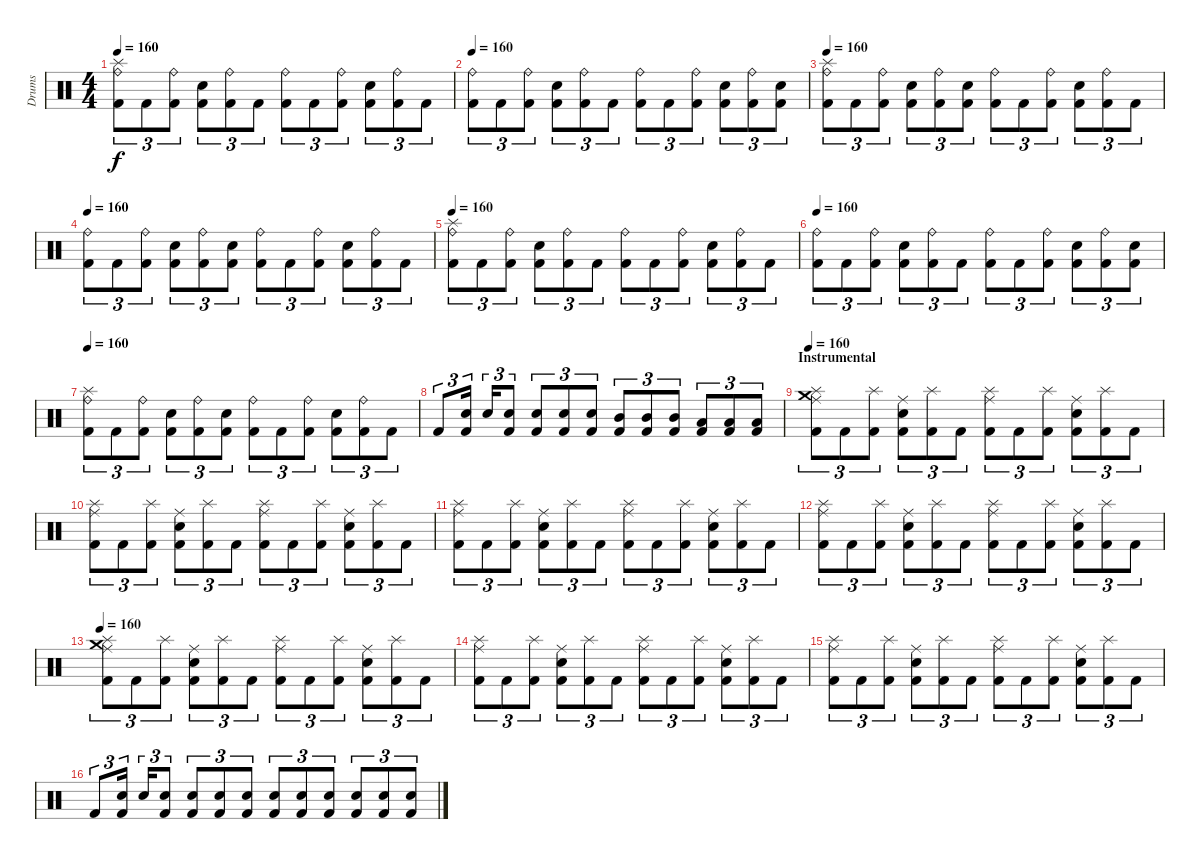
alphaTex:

\track ("Drums" "Drums") {instrument percussion}
\staff {score}
\articulation defaults
\ts (4 4)
\tempo 160
\clef neutral
\ks c
("Ride (bell)" "Splash (hit)" "Kick (hit) 2").8{tu (3 2) dy f} "Kick (hit) 2".8{tu (3 2)} ("Ride (bell)" "Kick (hit) 2").8{tu (3 2)} ("Snare (hit) 2" "Kick (hit) 2").8{tu (3 2)} ("Ride (bell)" "Kick (hit) 2").8{tu (3 2)} "Kick (hit) 2".8{tu (3 2)} ("Ride (bell)" "Kick (hit) 2").8{tu (3 2)} "Kick (hit) 2".8{tu (3 2)} ("Ride (bell)" "Kick (hit) 2").8{tu (3 2)} ("Snare (hit) 2" "Kick (hit) 2").8{tu (3 2)} ("Ride (bell)" "Kick (hit) 2").8{tu (3 2)} "Kick (hit) 2".8{tu (3 2)} |
\tempo 160
("Ride (bell)" "Kick (hit) 2").8{tu (3 2)} "Kick (hit) 2".8{tu (3 2)} ("Ride (bell)" "Kick (hit) 2").8{tu (3 2)} ("Snare (hit) 2" "Kick (hit) 2").8{tu (3 2)} ("Ride (bell)" "Kick (hit) 2").8{tu (3 2)} "Kick (hit) 2".8{tu (3 2)} ("Ride (bell)" "Kick (hit) 2").8{tu (3 2)} "Kick (hit) 2".8{tu (3 2)} ("Ride (bell)" "Kick (hit) 2").8{tu (3 2)} ("Snare (hit) 2" "Kick (hit) 2").8{tu (3 2)} ("Ride (bell)" "Kick (hit) 2").8{tu (3 2)} ("Snare (hit) 2" "Kick (hit) 2").8{tu (3 2)} |
\tempo 160
("Ride (bell)" "Splash (hit)" "Kick (hit) 2").8{tu (3 2)} "Kick (hit) 2".8{tu (3 2)} ("Ride (bell)" "Kick (hit) 2").8{tu (3 2)} ("Snare (hit) 2" "Kick (hit) 2").8{tu (3 2)} ("Ride (bell)" "Kick (hit) 2").8{tu (3 2)} ("Snare (hit)" "Kick (hit) 2").8{tu (3 2)} ("Ride (bell)" "Kick (hit) 2").8{tu (3 2)} "Kick (hit) 2".8{tu (3 2)} ("Ride (bell)" "Kick (hit) 2").8{tu (3 2)} ("Snare (hit) 2" "Kick (hit) 2").8{tu (3 2)} ("Ride (bell)" "Kick (hit) 2").8{tu (3 2)} "Kick (hit) 2".8{tu (3 2)} |
\tempo 160
("Ride (bell)" "Kick (hit) 2").8{tu (3 2)} "Kick (hit) 2".8{tu (3 2)} ("Ride (bell)" "Kick (hit) 2").8{tu (3 2)} ("Snare (hit) 2" "Kick (hit) 2").8{tu (3 2)} ("Ride (bell)" "Kick (hit) 2").8{tu (3 2)} ("Snare (hit) 2" "Kick (hit) 2").8{tu (3 2)} ("Ride (bell)" "Kick (hit) 2").8{tu (3 2)} "Kick (hit) 2".8{tu (3 2)} ("Ride (bell)" "Kick (hit) 2").8{tu (3 2)} ("Snare (hit) 2" "Kick (hit) 2").8{tu (3 2)} ("Ride (bell)" "Kick (hit) 2").8{tu (3 2)} "Kick (hit) 2".8{tu (3 2)} |
\tempo 160
("Ride (bell)" "Splash (hit)" "Kick (hit) 2").8{tu (3 2)} "Kick (hit) 2".8{tu (3 2)} ("Ride (bell)" "Kick (hit) 2").8{tu (3 2)} ("Snare (hit) 2" "Kick (hit) 2").8{tu (3 2)} ("Ride (bell)" "Kick (hit) 2").8{tu (3 2)} "Kick (hit) 2".8{tu (3 2)} ("Ride (bell)" "Kick (hit) 2").8{tu (3 2)} "Kick (hit) 2".8{tu (3 2)} ("Ride (bell)" "Kick (hit) 2").8{tu (3 2)} ("Snare (hit) 2" "Kick (hit) 2").8{tu (3 2)} ("Ride (bell)" "Kick (hit) 2").8{tu (3 2)} "Kick (hit) 2".8{tu (3 2)} |
\tempo 160
("Ride (bell)" "Kick (hit) 2").8{tu (3 2)} "Kick (hit) 2".8{tu (3 2)} ("Ride (bell)" "Kick (hit) 2").8{tu (3 2)} ("Snare (hit) 2" "Kick (hit) 2").8{tu (3 2)} ("Ride (bell)" "Kick (hit) 2").8{tu (3 2)} "Kick (hit) 2".8{tu (3 2)} ("Ride (bell)" "Kick (hit) 2").8{tu (3 2)} "Kick (hit) 2".8{tu (3 2)} ("Ride (bell)" "Kick (hit) 2").8{tu (3 2)} ("Snare (hit) 2" "Kick (hit) 2").8{tu (3 2)} ("Ride (bell)" "Kick (hit) 2").8{tu (3 2)} ("Snare (hit) 2" "Kick (hit) 2").8{tu (3 2)} |
\tempo 160
("Ride (bell)" "Splash (hit)" "Kick (hit) 2").8{tu (3 2)} "Kick (hit) 2".8{tu (3 2)} ("Ride (bell)" "Kick (hit) 2").8{tu (3 2)} ("Snare (hit) 2" "Kick (hit) 2").8{tu (3 2)} ("Ride (bell)" "Kick (hit) 2").8{tu (3 2)} ("Snare (hit) 2" "Kick (hit) 2").8{tu (3 2)} ("Ride (bell)" "Kick (hit) 2").8{tu (3 2)} "Kick (hit) 2".8{tu (3 2)} ("Ride (bell)" "Kick (hit) 2").8{tu (3 2)} ("Snare (hit) 2" "Kick (hit) 2").8{tu (3 2)} ("Ride (bell)" "Kick (hit) 2").8{tu (3 2)} "Kick (hit) 2".8{tu (3 2)} |
"Kick (hit) 2".8{tu (3 2)} ("Snare (hit) 2" "Kick (hit) 2").16{tu (3 2)} "Snare (hit) 2".16{tu (3 2)} ("Snare (hit) 2" "Kick (hit) 2").8{tu (3 2)} ("Snare (hit) 2" "Kick (hit) 2").8{tu (3 2)} ("Snare (hit) 2" "Kick (hit) 2").8{tu (3 2)} ("Snare (hit) 2" "Kick (hit) 2").8{tu (3 2)} ("Mid Tom (hit)" "Kick (hit) 2").8{tu (3 2)} ("Mid Tom (hit)" "Kick (hit) 2").8{tu (3 2)} ("Mid Tom (hit)" "Kick (hit) 2").8{tu (3 2)} ("Low Tom (hit)" "Kick (hit) 2").8{tu (3 2)} ("Low Tom (hit)" "Kick (hit) 2").8{tu (3 2)} ("Low Tom (hit)" "Kick (hit) 2").8{tu (3 2)} |
\section ("" "Instrumental")
\tempo 160
("Splash (hit)" "Ride (middle)" "Crash medium (hit)" "Kick (hit) 2").8{tu (3 2)} "Kick (hit) 2".8{tu (3 2)} ("Splash (hit)" "Kick (hit) 2").8{tu (3 2)} ("Ride (middle)" "Snare (hit) 2" "Kick (hit) 2").8{tu (3 2)} ("Splash (hit)" "Kick (hit) 2").8{tu (3 2)} "Kick (hit) 2".8{tu (3 2)} ("Splash (hit)" "Ride (middle)" "Kick (hit) 2").8{tu (3 2)} "Kick (hit) 2".8{tu (3 2)} ("Splash (hit)" "Kick (hit) 2").8{tu (3 2)} ("Ride (middle)" "Snare (hit) 2" "Kick (hit) 2").8{tu (3 2)} ("Splash (hit)" "Kick (hit) 2").8{tu (3 2)} "Kick (hit) 2".8{tu (3 2)} |
("Splash (hit)" "Ride (middle)" "Kick (hit) 2").8{tu (3 2)} "Kick (hit) 2".8{tu (3 2)} ("Splash (hit)" "Kick (hit) 2").8{tu (3 2)} ("Ride (middle)" "Snare (hit) 2" "Kick (hit) 2").8{tu (3 2)} ("Splash (hit)" "Kick (hit) 2").8{tu (3 2)} "Kick (hit) 2".8{tu (3 2)} ("Splash (hit)" "Ride (middle)" "Kick (hit) 2").8{tu (3 2)} "Kick (hit) 2".8{tu (3 2)} ("Splash (hit)" "Kick (hit) 2").8{tu (3 2)} ("Ride (middle)" "Snare (hit) 2" "Kick (hit) 2").8{tu (3 2)} ("Splash (hit)" "Kick (hit) 2").8{tu (3 2)} "Kick (hit) 2".8{tu (3 2)} |
("Splash (hit)" "Ride (middle)" "Kick (hit) 2").8{tu (3 2)} "Kick (hit) 2".8{tu (3 2)} ("Splash (hit)" "Kick (hit) 2").8{tu (3 2)} ("Ride (middle)" "Snare (hit) 2" "Kick (hit) 2").8{tu (3 2)} ("Splash (hit)" "Kick (hit) 2").8{tu (3 2)} "Kick (hit) 2".8{tu (3 2)} ("Splash (hit)" "Ride (middle)" "Kick (hit) 2").8{tu (3 2)} "Kick (hit) 2".8{tu (3 2)} ("Splash (hit)" "Kick (hit) 2").8{tu (3 2)} ("Ride (middle)" "Snare (hit) 2" "Kick (hit) 2").8{tu (3 2)} ("Splash (hit)" "Kick (hit) 2").8{tu (3 2)} "Kick (hit) 2".8{tu (3 2)} |
("Splash (hit)" "Ride (middle)" "Kick (hit) 2").8{tu (3 2)} "Kick (hit) 2".8{tu (3 2)} ("Splash (hit)" "Kick (hit) 2").8{tu (3 2)} ("Ride (middle)" "Snare (hit) 2" "Kick (hit) 2").8{tu (3 2)} ("Splash (hit)" "Kick (hit) 2").8{tu (3 2)} "Kick (hit) 2".8{tu (3 2)} ("Splash (hit)" "Ride (middle)" "Kick (hit) 2").8{tu (3 2)} "Kick (hit) 2".8{tu (3 2)} ("Splash (hit)" "Kick (hit) 2").8{tu (3 2)} ("Ride (middle)" "Snare (hit) 2" "Kick (hit) 2").8{tu (3 2)} ("Splash (hit)" "Kick (hit) 2").8{tu (3 2)} "Kick (hit) 2".8{tu (3 2)} |
\tempo 160
("Splash (hit)" "Ride (middle)" "Crash medium (hit)" "Kick (hit) 2").8{tu (3 2)} "Kick (hit) 2".8{tu (3 2)} ("Splash (hit)" "Kick (hit) 2").8{tu (3 2)} ("Ride (middle)" "Snare (hit) 2" "Kick (hit) 2").8{tu (3 2)} ("Splash (hit)" "Kick (hit) 2").8{tu (3 2)} "Kick (hit) 2".8{tu (3 2)} ("Splash (hit)" "Ride (middle)" "Kick (hit) 2").8{tu (3 2)} "Kick (hit) 2".8{tu (3 2)} ("Splash (hit)" "Kick (hit) 2").8{tu (3 2)} ("Ride (middle)" "Snare (hit) 2" "Kick (hit) 2").8{tu (3 2)} ("Splash (hit)" "Kick (hit) 2").8{tu (3 2)} "Kick (hit) 2".8{tu (3 2)} |
("Splash (hit)" "Ride (middle)" "Kick (hit) 2").8{tu (3 2)} "Kick (hit) 2".8{tu (3 2)} ("Splash (hit)" "Kick (hit) 2").8{tu (3 2)} ("Ride (middle)" "Snare (hit) 2" "Kick (hit) 2").8{tu (3 2)} ("Splash (hit)" "Kick (hit) 2").8{tu (3 2)} "Kick (hit) 2".8{tu (3 2)} ("Splash (hit)" "Ride (middle)" "Kick (hit) 2").8{tu (3 2)} "Kick (hit) 2".8{tu (3 2)} ("Splash (hit)" "Kick (hit) 2").8{tu (3 2)} ("Ride (middle)" "Snare (hit) 2" "Kick (hit) 2").8{tu (3 2)} ("Splash (hit)" "Kick (hit) 2").8{tu (3 2)} "Kick (hit) 2".8{tu (3 2)} |
("Splash (hit)" "Ride (middle)" "Kick (hit) 2").8{tu (3 2)} "Kick (hit) 2".8{tu (3 2)} ("Splash (hit)" "Kick (hit) 2").8{tu (3 2)} ("Ride (middle)" "Snare (hit) 2" "Kick (hit) 2").8{tu (3 2)} ("Splash (hit)" "Kick (hit) 2").8{tu (3 2)} "Kick (hit) 2".8{tu (3 2)} ("Splash (hit)" "Ride (middle)" "Kick (hit) 2").8{tu (3 2)} "Kick (hit) 2".8{tu (3 2)} ("Splash (hit)" "Kick (hit) 2").8{tu (3 2)} ("Ride (middle)" "Snare (hit) 2" "Kick (hit) 2").8{tu (3 2)} ("Splash (hit)" "Kick (hit) 2").8{tu (3 2)} "Kick (hit) 2".8{tu (3 2)} |
"Kick (hit) 2".8{tu (3 2)} ("Snare (hit) 2" "Kick (hit) 2").16{tu (3 2)} "Snare (hit) 2".16{tu (3 2)} ("Snare (hit) 2" "Kick (hit) 2").8{tu (3 2)} ("Snare (hit) 2" "Kick (hit) 2").8{tu (3 2)} ("Snare (hit) 2" "Kick (hit) 2").8{tu (3 2)} ("Snare (hit) 2" "Kick (hit) 2").8{tu (3 2)} ("Snare (hit) 2" "Kick (hit) 2").8{tu (3 2)} ("Snare (hit) 2" "Kick (hit) 2").8{tu (3 2)} ("Snare (hit) 2" "Kick (hit) 2").8{tu (3 2)} ("Snare (hit) 2" "Kick (hit) 2").8{tu (3 2)} ("Snare (hit) 2" "Kick (hit) 2").8{tu (3 2)} ("Snare (hit) 2" "Kick (hit) 2").8{tu (3 2)}
